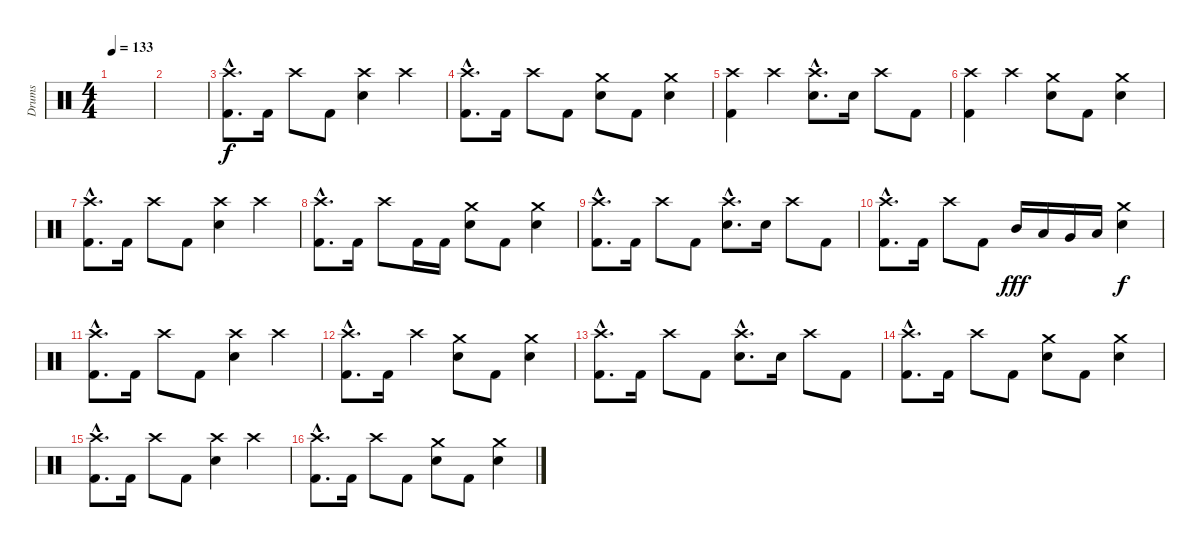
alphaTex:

\track ("Drums" "Drums") {instrument percussion}
\staff {score}
\articulation defaults
\ts (4 4)
\tempo 133
\clef neutral
\ks c
|
|
("Crash high (hit)"{hac} "Kick (hit) 2"{hac}).8{d dy f} "Kick (hit) 2".16 "Crash high (hit)".8 "Kick (hit) 2".8 ("Crash high (hit)" "Snare (hit) 2").4 "Crash high (hit)".4 |
("Crash high (hit)"{hac} "Kick (hit) 2"{hac}).8{d} "Kick (hit) 2".16 "Crash high (hit)".8 "Kick (hit) 2".8 ("Crash medium (hit)" "Snare (hit) 2").8 "Kick (hit) 2".8 ("Crash medium (hit)" "Snare (hit) 2").4 |
("Crash high (hit)" "Kick (hit) 2").4 "Crash high (hit)".4 ("Crash high (hit)"{hac} "Snare (hit) 2"{hac}).8{d} "Snare (hit) 2".16 "Crash high (hit)".8 "Kick (hit) 2".8 |
("Crash high (hit)" "Kick (hit) 2").4 "Crash high (hit)".4 ("Crash medium (hit)" "Snare (hit) 2").8 "Kick (hit) 2".8 ("Crash medium (hit)" "Snare (hit) 2").4 |
("Crash high (hit)"{hac} "Kick (hit) 2"{hac}).8{d} "Kick (hit) 2".16 "Crash high (hit)".8 "Kick (hit) 2".8 ("Crash high (hit)" "Snare (hit) 2").4 "Crash high (hit)".4 |
("Crash high (hit)"{hac} "Kick (hit) 2"{hac}).8{d} "Kick (hit) 2".16 "Crash high (hit)".8 "Kick (hit) 2".16 "Kick (hit) 2".16 ("Crash medium (hit)" "Snare (hit) 2").8 "Kick (hit) 2".8 ("Crash medium (hit)" "Snare (hit) 2").4 |
("Crash high (hit)"{hac} "Kick (hit) 2"{hac}).8{d} "Kick (hit) 2".16 "Crash high (hit)".8 "Kick (hit) 2".8 ("Crash high (hit)"{hac} "Snare (hit) 2"{hac}).8{d} "Snare (hit) 2".16 "Crash high (hit)".8 "Kick (hit) 2".8 |
("Crash high (hit)"{hac} "Kick (hit) 2"{hac}).8{d} "Kick (hit) 2".16 "Crash high (hit)".8 "Kick (hit) 2".8 "Mid Tom (hit)".16{dy fff} "Low Tom (hit)".16 "Very Low Tom (hit)".16 "Low Floor Tom (hit)".16 ("Crash medium (hit)" "Snare (hit) 2").4{dy f} |
("Crash high (hit)"{hac} "Kick (hit) 2"{hac}).8{d} "Kick (hit) 2".16 "Crash high (hit)".8 "Kick (hit) 2".8 ("Crash high (hit)" "Snare (hit) 2").4 "Crash high (hit)".4 |
("Crash high (hit)"{hac} "Kick (hit) 2"{hac}).8{d} "Kick (hit) 2".16 "Crash high (hit)".4 ("Crash medium (hit)" "Snare (hit) 2").8 "Kick (hit) 2".8 ("Crash medium (hit)" "Snare (hit) 2").4 |
("Crash high (hit)"{hac} "Kick (hit) 2"{hac}).8{d} "Kick (hit) 2".16 "Crash high (hit)".8 "Kick (hit) 2".8 ("Crash high (hit)"{hac} "Snare (hit) 2"{hac}).8{d} "Snare (hit) 2".16 "Crash high (hit)".8 "Kick (hit) 2".8 |
("Crash high (hit)"{hac} "Kick (hit) 2"{hac}).8{d} "Kick (hit) 2".16 "Crash high (hit)".8 "Kick (hit) 2".8 ("Crash medium (hit)" "Snare (hit) 2").8 "Kick (hit) 2".8 ("Crash medium (hit)" "Snare (hit) 2").4 |
("Crash high (hit)"{hac} "Kick (hit) 2"{hac}).8{d} "Kick (hit) 2".16 "Crash high (hit)".8 "Kick (hit) 2".8 ("Crash high (hit)" "Snare (hit) 2").4 "Crash high (hit)".4 |
("Crash high (hit)"{hac} "Kick (hit) 2"{hac}).8{d} "Kick (hit) 2".16 "Crash high (hit)".8 "Kick (hit) 2".8 ("Crash medium (hit)" "Snare (hit) 2").8 "Kick (hit) 2".8 ("Crash medium (hit)" "Snare (hit) 2").4
